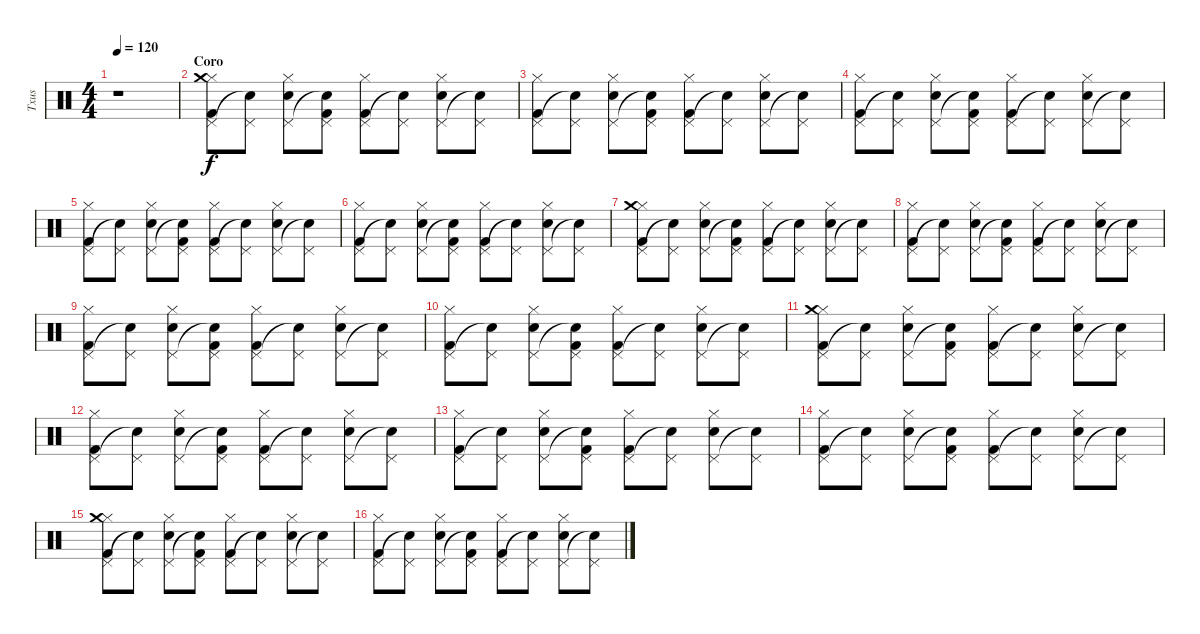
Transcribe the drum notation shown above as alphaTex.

\track ("Txus" "Txus") {instrument percussion}
\staff {score}
\articulation defaults
\ts (4 4)
\tempo 120
\clef neutral
\ks c
r.1{dy f} |
\section ("" "Coro")
("Hi-Hat (closed)" "Pedal Hi-Hat (hit)" "Crash medium (hit)" "Kick (hit) 2").8 ("Pedal Hi-Hat (hit)" "Snare (hit)"{t}).8 ("Hi-Hat (closed)" "Pedal Hi-Hat (hit)" "Snare (hit) 2").8 ("Pedal Hi-Hat (hit)" "Snare (hit)"{t} "Kick (hit) 2").8 ("Hi-Hat (closed)" "Pedal Hi-Hat (hit)" "Kick (hit) 2").8 ("Pedal Hi-Hat (hit)" "Snare (hit)"{t}).8 ("Hi-Hat (closed)" "Pedal Hi-Hat (hit)" "Snare (hit) 2").8 ("Pedal Hi-Hat (hit)" "Snare (hit) 2"{t}).8 |
("Hi-Hat (closed)" "Pedal Hi-Hat (hit)" "Kick (hit) 2").8 ("Pedal Hi-Hat (hit)" "Snare (hit)"{t}).8 ("Hi-Hat (closed)" "Pedal Hi-Hat (hit)" "Snare (hit) 2").8 ("Pedal Hi-Hat (hit)" "Snare (hit)"{t} "Kick (hit) 2").8 ("Hi-Hat (closed)" "Pedal Hi-Hat (hit)" "Kick (hit) 2").8 ("Pedal Hi-Hat (hit)" "Snare (hit)"{t}).8 ("Hi-Hat (closed)" "Pedal Hi-Hat (hit)" "Snare (hit) 2").8 ("Pedal Hi-Hat (hit)" "Snare (hit) 2"{t}).8 |
("Hi-Hat (closed)" "Pedal Hi-Hat (hit)" "Kick (hit) 2").8 ("Pedal Hi-Hat (hit)" "Snare (hit)"{t}).8 ("Hi-Hat (closed)" "Pedal Hi-Hat (hit)" "Snare (hit) 2").8 ("Pedal Hi-Hat (hit)" "Snare (hit)"{t} "Kick (hit) 2").8 ("Hi-Hat (closed)" "Pedal Hi-Hat (hit)" "Kick (hit) 2").8 ("Pedal Hi-Hat (hit)" "Snare (hit)"{t}).8 ("Hi-Hat (closed)" "Pedal Hi-Hat (hit)" "Snare (hit) 2").8 ("Pedal Hi-Hat (hit)" "Snare (hit) 2"{t}).8 |
("Hi-Hat (closed)" "Pedal Hi-Hat (hit)" "Kick (hit) 2").8 ("Pedal Hi-Hat (hit)" "Snare (hit)"{t}).8 ("Hi-Hat (closed)" "Pedal Hi-Hat (hit)" "Snare (hit) 2").8 ("Pedal Hi-Hat (hit)" "Snare (hit)"{t} "Kick (hit) 2").8 ("Hi-Hat (closed)" "Pedal Hi-Hat (hit)" "Kick (hit) 2").8 ("Pedal Hi-Hat (hit)" "Snare (hit)"{t}).8 ("Hi-Hat (closed)" "Pedal Hi-Hat (hit)" "Snare (hit) 2").8 ("Pedal Hi-Hat (hit)" "Snare (hit) 2"{t}).8 |
("Hi-Hat (closed)" "Pedal Hi-Hat (hit)" "Kick (hit) 2").8 ("Pedal Hi-Hat (hit)" "Snare (hit)"{t}).8 ("Hi-Hat (closed)" "Pedal Hi-Hat (hit)" "Snare (hit) 2").8 ("Pedal Hi-Hat (hit)" "Snare (hit)"{t} "Kick (hit) 2").8 ("Hi-Hat (closed)" "Pedal Hi-Hat (hit)" "Kick (hit) 2").8 ("Pedal Hi-Hat (hit)" "Snare (hit)"{t}).8 ("Hi-Hat (closed)" "Pedal Hi-Hat (hit)" "Snare (hit) 2").8 ("Pedal Hi-Hat (hit)" "Snare (hit) 2"{t}).8 |
("Hi-Hat (closed)" "Pedal Hi-Hat (hit)" "Crash medium (hit)" "Kick (hit) 2").8 ("Pedal Hi-Hat (hit)" "Snare (hit)"{t}).8 ("Hi-Hat (closed)" "Pedal Hi-Hat (hit)" "Snare (hit) 2").8 ("Pedal Hi-Hat (hit)" "Snare (hit)"{t} "Kick (hit) 2").8 ("Hi-Hat (closed)" "Pedal Hi-Hat (hit)" "Kick (hit) 2").8 ("Pedal Hi-Hat (hit)" "Snare (hit)"{t}).8 ("Hi-Hat (closed)" "Pedal Hi-Hat (hit)" "Snare (hit) 2").8 ("Pedal Hi-Hat (hit)" "Snare (hit) 2"{t}).8 |
("Hi-Hat (closed)" "Pedal Hi-Hat (hit)" "Kick (hit) 2").8 ("Pedal Hi-Hat (hit)" "Snare (hit)"{t}).8 ("Hi-Hat (closed)" "Pedal Hi-Hat (hit)" "Snare (hit) 2").8 ("Pedal Hi-Hat (hit)" "Snare (hit)"{t} "Kick (hit) 2").8 ("Hi-Hat (closed)" "Pedal Hi-Hat (hit)" "Kick (hit) 2").8 ("Pedal Hi-Hat (hit)" "Snare (hit)"{t}).8 ("Hi-Hat (closed)" "Pedal Hi-Hat (hit)" "Snare (hit) 2").8 ("Pedal Hi-Hat (hit)" "Snare (hit) 2"{t}).8 |
("Hi-Hat (closed)" "Pedal Hi-Hat (hit)" "Kick (hit) 2").8 ("Pedal Hi-Hat (hit)" "Snare (hit)"{t}).8 ("Hi-Hat (closed)" "Pedal Hi-Hat (hit)" "Snare (hit) 2").8 ("Pedal Hi-Hat (hit)" "Snare (hit)"{t} "Kick (hit) 2").8 ("Hi-Hat (closed)" "Pedal Hi-Hat (hit)" "Kick (hit) 2").8 ("Pedal Hi-Hat (hit)" "Snare (hit)"{t}).8 ("Hi-Hat (closed)" "Pedal Hi-Hat (hit)" "Snare (hit) 2").8 ("Pedal Hi-Hat (hit)" "Snare (hit) 2"{t}).8 |
("Hi-Hat (closed)" "Pedal Hi-Hat (hit)" "Kick (hit) 2").8 ("Pedal Hi-Hat (hit)" "Snare (hit)"{t}).8 ("Hi-Hat (closed)" "Pedal Hi-Hat (hit)" "Snare (hit) 2").8 ("Pedal Hi-Hat (hit)" "Snare (hit)"{t} "Kick (hit) 2").8 ("Hi-Hat (closed)" "Pedal Hi-Hat (hit)" "Kick (hit) 2").8 ("Pedal Hi-Hat (hit)" "Snare (hit)"{t}).8 ("Hi-Hat (closed)" "Pedal Hi-Hat (hit)" "Snare (hit) 2").8 ("Pedal Hi-Hat (hit)" "Snare (hit) 2"{t}).8 |
("Hi-Hat (closed)" "Pedal Hi-Hat (hit)" "Crash medium (hit)" "Kick (hit) 2").8 ("Pedal Hi-Hat (hit)" "Snare (hit)"{t}).8 ("Hi-Hat (closed)" "Pedal Hi-Hat (hit)" "Snare (hit) 2").8 ("Pedal Hi-Hat (hit)" "Snare (hit)"{t} "Kick (hit) 2").8 ("Hi-Hat (closed)" "Pedal Hi-Hat (hit)" "Kick (hit) 2").8 ("Pedal Hi-Hat (hit)" "Snare (hit)"{t}).8 ("Hi-Hat (closed)" "Pedal Hi-Hat (hit)" "Snare (hit) 2").8 ("Pedal Hi-Hat (hit)" "Snare (hit) 2"{t}).8 |
("Hi-Hat (closed)" "Pedal Hi-Hat (hit)" "Kick (hit) 2").8 ("Pedal Hi-Hat (hit)" "Snare (hit)"{t}).8 ("Hi-Hat (closed)" "Pedal Hi-Hat (hit)" "Snare (hit) 2").8 ("Pedal Hi-Hat (hit)" "Snare (hit)"{t} "Kick (hit) 2").8 ("Hi-Hat (closed)" "Pedal Hi-Hat (hit)" "Kick (hit) 2").8 ("Pedal Hi-Hat (hit)" "Snare (hit)"{t}).8 ("Hi-Hat (closed)" "Pedal Hi-Hat (hit)" "Snare (hit) 2").8 ("Pedal Hi-Hat (hit)" "Snare (hit) 2"{t}).8 |
("Hi-Hat (closed)" "Pedal Hi-Hat (hit)" "Kick (hit) 2").8 ("Pedal Hi-Hat (hit)" "Snare (hit)"{t}).8 ("Hi-Hat (closed)" "Pedal Hi-Hat (hit)" "Snare (hit) 2").8 ("Pedal Hi-Hat (hit)" "Snare (hit)"{t} "Kick (hit) 2").8 ("Hi-Hat (closed)" "Pedal Hi-Hat (hit)" "Kick (hit) 2").8 ("Pedal Hi-Hat (hit)" "Snare (hit)"{t}).8 ("Hi-Hat (closed)" "Pedal Hi-Hat (hit)" "Snare (hit) 2").8 ("Pedal Hi-Hat (hit)" "Snare (hit) 2"{t}).8 |
("Hi-Hat (closed)" "Pedal Hi-Hat (hit)" "Kick (hit) 2").8 ("Pedal Hi-Hat (hit)" "Snare (hit)"{t}).8 ("Hi-Hat (closed)" "Pedal Hi-Hat (hit)" "Snare (hit) 2").8 ("Pedal Hi-Hat (hit)" "Snare (hit)"{t} "Kick (hit) 2").8 ("Hi-Hat (closed)" "Pedal Hi-Hat (hit)" "Kick (hit) 2").8 ("Pedal Hi-Hat (hit)" "Snare (hit)"{t}).8 ("Hi-Hat (closed)" "Pedal Hi-Hat (hit)" "Snare (hit) 2").8 ("Pedal Hi-Hat (hit)" "Snare (hit) 2"{t}).8 |
("Hi-Hat (closed)" "Pedal Hi-Hat (hit)" "Crash medium (hit)" "Kick (hit) 2").8 ("Pedal Hi-Hat (hit)" "Snare (hit)"{t}).8 ("Hi-Hat (closed)" "Pedal Hi-Hat (hit)" "Snare (hit) 2").8 ("Pedal Hi-Hat (hit)" "Snare (hit)"{t} "Kick (hit) 2").8 ("Hi-Hat (closed)" "Pedal Hi-Hat (hit)" "Kick (hit) 2").8 ("Pedal Hi-Hat (hit)" "Snare (hit)"{t}).8 ("Hi-Hat (closed)" "Pedal Hi-Hat (hit)" "Snare (hit) 2").8 ("Pedal Hi-Hat (hit)" "Snare (hit) 2"{t}).8 |
("Hi-Hat (closed)" "Pedal Hi-Hat (hit)" "Kick (hit) 2").8 ("Pedal Hi-Hat (hit)" "Snare (hit)"{t}).8 ("Hi-Hat (closed)" "Pedal Hi-Hat (hit)" "Snare (hit) 2").8 ("Pedal Hi-Hat (hit)" "Snare (hit)"{t} "Kick (hit) 2").8 ("Hi-Hat (closed)" "Pedal Hi-Hat (hit)" "Kick (hit) 2").8 ("Pedal Hi-Hat (hit)" "Snare (hit)"{t}).8 ("Hi-Hat (closed)" "Pedal Hi-Hat (hit)" "Snare (hit) 2").8 ("Pedal Hi-Hat (hit)" "Snare (hit) 2"{t}).8
